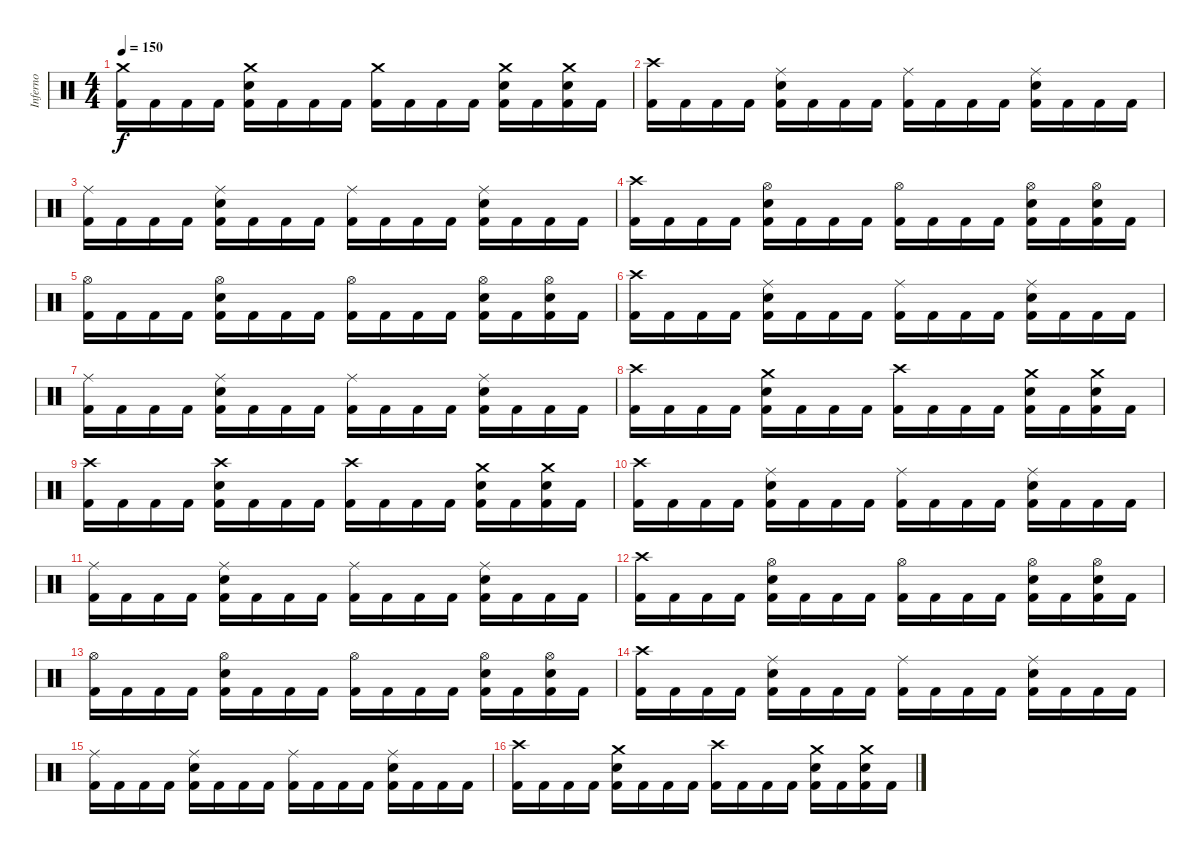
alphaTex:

\track ("Inferno" "Inferno") {instrument percussion}
\staff {score}
\articulation defaults
\ts (4 4)
\tempo 150
\clef neutral
\ks c
("Crash medium (hit)" "Kick (hit) 2").16{dy f} "Kick (hit) 2".16 "Kick (hit) 2".16 "Kick (hit) 2".16 ("Crash medium (hit)" "Electric Snare (hit)" "Kick (hit) 2").16 "Kick (hit) 2".16 "Kick (hit) 2".16 "Kick (hit) 2".16 ("Crash medium (hit)" "Kick (hit) 2").16 "Kick (hit) 2".16 "Kick (hit) 2".16 "Kick (hit) 2".16 ("Crash medium (hit)" "Electric Snare (hit)" "Kick (hit) 2").16 "Kick (hit) 2".16 ("Crash medium (hit)" "Electric Snare (hit)" "Kick (hit) 2").16 "Kick (hit) 2".16 |
("Crash high (hit)" "Kick (hit) 2").16 "Kick (hit) 2".16 "Kick (hit) 2".16 "Kick (hit) 2".16 ("Ride (middle)" "Electric Snare (hit)" "Kick (hit) 2").16 "Kick (hit) 2".16 "Kick (hit) 2".16 "Kick (hit) 2".16 ("Ride (middle)" "Kick (hit) 2").16 "Kick (hit) 2".16 "Kick (hit) 2".16 "Kick (hit) 2".16 ("Ride (middle)" "Electric Snare (hit)" "Kick (hit) 2").16 "Kick (hit) 2".16 "Kick (hit) 2".16 "Kick (hit) 2".16 |
("Ride (middle)" "Kick (hit) 2").16 "Kick (hit) 2".16 "Kick (hit) 2".16 "Kick (hit) 2".16 ("Ride (middle)" "Electric Snare (hit)" "Kick (hit) 2").16 "Kick (hit) 2".16 "Kick (hit) 2".16 "Kick (hit) 2".16 ("Ride (middle)" "Kick (hit) 2").16 "Kick (hit) 2".16 "Kick (hit) 2".16 "Kick (hit) 2".16 ("Ride (middle)" "Electric Snare (hit)" "Kick (hit) 2").16 "Kick (hit) 2".16 "Kick (hit) 2".16 "Kick (hit) 2".16 |
("Crash high (hit)" "Kick (hit) 2").16 "Kick (hit) 2".16 "Kick (hit) 2".16 "Kick (hit) 2".16 ("Hi-Hat (open)" "Electric Snare (hit)" "Kick (hit) 2").16 "Kick (hit) 2".16 "Kick (hit) 2".16 "Kick (hit) 2".16 ("Hi-Hat (open)" "Kick (hit) 2").16 "Kick (hit) 2".16 "Kick (hit) 2".16 "Kick (hit) 2".16 ("Hi-Hat (open)" "Electric Snare (hit)" "Kick (hit) 2").16 "Kick (hit) 2".16 ("Hi-Hat (open)" "Electric Snare (hit)" "Kick (hit) 2").16 "Kick (hit) 2".16 |
("Hi-Hat (open)" "Kick (hit) 2").16 "Kick (hit) 2".16 "Kick (hit) 2".16 "Kick (hit) 2".16 ("Hi-Hat (open)" "Electric Snare (hit)" "Kick (hit) 2").16 "Kick (hit) 2".16 "Kick (hit) 2".16 "Kick (hit) 2".16 ("Hi-Hat (open)" "Kick (hit) 2").16 "Kick (hit) 2".16 "Kick (hit) 2".16 "Kick (hit) 2".16 ("Hi-Hat (open)" "Electric Snare (hit)" "Kick (hit) 2").16 "Kick (hit) 2".16 ("Hi-Hat (open)" "Electric Snare (hit)" "Kick (hit) 2").16 "Kick (hit) 2".16 |
("Crash high (hit)" "Kick (hit) 2").16 "Kick (hit) 2".16 "Kick (hit) 2".16 "Kick (hit) 2".16 ("Ride (middle)" "Electric Snare (hit)" "Kick (hit) 2").16 "Kick (hit) 2".16 "Kick (hit) 2".16 "Kick (hit) 2".16 ("Ride (middle)" "Kick (hit) 2").16 "Kick (hit) 2".16 "Kick (hit) 2".16 "Kick (hit) 2".16 ("Ride (middle)" "Electric Snare (hit)" "Kick (hit) 2").16 "Kick (hit) 2".16 "Kick (hit) 2".16 "Kick (hit) 2".16 |
("Ride (middle)" "Kick (hit) 2").16 "Kick (hit) 2".16 "Kick (hit) 2".16 "Kick (hit) 2".16 ("Ride (middle)" "Electric Snare (hit)" "Kick (hit) 2").16 "Kick (hit) 2".16 "Kick (hit) 2".16 "Kick (hit) 2".16 ("Ride (middle)" "Kick (hit) 2").16 "Kick (hit) 2".16 "Kick (hit) 2".16 "Kick (hit) 2".16 ("Ride (middle)" "Electric Snare (hit)" "Kick (hit) 2").16 "Kick (hit) 2".16 "Kick (hit) 2".16 "Kick (hit) 2".16 |
("Crash high (hit)" "Kick (hit) 2").16 "Kick (hit) 2".16 "Kick (hit) 2".16 "Kick (hit) 2".16 ("Crash medium (hit)" "Electric Snare (hit)" "Kick (hit) 2").16 "Kick (hit) 2".16 "Kick (hit) 2".16 "Kick (hit) 2".16 ("Crash high (hit)" "Kick (hit) 2").16 "Kick (hit) 2".16 "Kick (hit) 2".16 "Kick (hit) 2".16 ("Crash medium (hit)" "Electric Snare (hit)" "Kick (hit) 2").16 "Kick (hit) 2".16 ("Crash medium (hit)" "Electric Snare (hit)" "Kick (hit) 2").16 "Kick (hit) 2".16 |
("Crash high (hit)" "Kick (hit) 2").16 "Kick (hit) 2".16 "Kick (hit) 2".16 "Kick (hit) 2".16 ("Crash high (hit)" "Electric Snare (hit)" "Kick (hit) 2").16 "Kick (hit) 2".16 "Kick (hit) 2".16 "Kick (hit) 2".16 ("Crash high (hit)" "Kick (hit) 2").16 "Kick (hit) 2".16 "Kick (hit) 2".16 "Kick (hit) 2".16 ("Crash medium (hit)" "Electric Snare (hit)" "Kick (hit) 2").16 "Kick (hit) 2".16 ("Crash medium (hit)" "Electric Snare (hit)" "Kick (hit) 2").16 "Kick (hit) 2".16 |
("Crash high (hit)" "Kick (hit) 2").16 "Kick (hit) 2".16 "Kick (hit) 2".16 "Kick (hit) 2".16 ("Ride (middle)" "Electric Snare (hit)" "Kick (hit) 2").16 "Kick (hit) 2".16 "Kick (hit) 2".16 "Kick (hit) 2".16 ("Ride (middle)" "Kick (hit) 2").16 "Kick (hit) 2".16 "Kick (hit) 2".16 "Kick (hit) 2".16 ("Ride (middle)" "Electric Snare (hit)" "Kick (hit) 2").16 "Kick (hit) 2".16 "Kick (hit) 2".16 "Kick (hit) 2".16 |
("Ride (middle)" "Kick (hit) 2").16 "Kick (hit) 2".16 "Kick (hit) 2".16 "Kick (hit) 2".16 ("Ride (middle)" "Electric Snare (hit)" "Kick (hit) 2").16 "Kick (hit) 2".16 "Kick (hit) 2".16 "Kick (hit) 2".16 ("Ride (middle)" "Kick (hit) 2").16 "Kick (hit) 2".16 "Kick (hit) 2".16 "Kick (hit) 2".16 ("Ride (middle)" "Electric Snare (hit)" "Kick (hit) 2").16 "Kick (hit) 2".16 "Kick (hit) 2".16 "Kick (hit) 2".16 |
("Crash high (hit)" "Kick (hit) 2").16 "Kick (hit) 2".16 "Kick (hit) 2".16 "Kick (hit) 2".16 ("Hi-Hat (open)" "Electric Snare (hit)" "Kick (hit) 2").16 "Kick (hit) 2".16 "Kick (hit) 2".16 "Kick (hit) 2".16 ("Hi-Hat (open)" "Kick (hit) 2").16 "Kick (hit) 2".16 "Kick (hit) 2".16 "Kick (hit) 2".16 ("Hi-Hat (open)" "Electric Snare (hit)" "Kick (hit) 2").16 "Kick (hit) 2".16 ("Hi-Hat (open)" "Electric Snare (hit)" "Kick (hit) 2").16 "Kick (hit) 2".16 |
("Hi-Hat (open)" "Kick (hit) 2").16 "Kick (hit) 2".16 "Kick (hit) 2".16 "Kick (hit) 2".16 ("Hi-Hat (open)" "Electric Snare (hit)" "Kick (hit) 2").16 "Kick (hit) 2".16 "Kick (hit) 2".16 "Kick (hit) 2".16 ("Hi-Hat (open)" "Kick (hit) 2").16 "Kick (hit) 2".16 "Kick (hit) 2".16 "Kick (hit) 2".16 ("Hi-Hat (open)" "Electric Snare (hit)" "Kick (hit) 2").16 "Kick (hit) 2".16 ("Hi-Hat (open)" "Electric Snare (hit)" "Kick (hit) 2").16 "Kick (hit) 2".16 |
("Crash high (hit)" "Kick (hit) 2").16 "Kick (hit) 2".16 "Kick (hit) 2".16 "Kick (hit) 2".16 ("Ride (middle)" "Electric Snare (hit)" "Kick (hit) 2").16 "Kick (hit) 2".16 "Kick (hit) 2".16 "Kick (hit) 2".16 ("Ride (middle)" "Kick (hit) 2").16 "Kick (hit) 2".16 "Kick (hit) 2".16 "Kick (hit) 2".16 ("Ride (middle)" "Electric Snare (hit)" "Kick (hit) 2").16 "Kick (hit) 2".16 "Kick (hit) 2".16 "Kick (hit) 2".16 |
("Ride (middle)" "Kick (hit) 2").16 "Kick (hit) 2".16 "Kick (hit) 2".16 "Kick (hit) 2".16 ("Ride (middle)" "Electric Snare (hit)" "Kick (hit) 2").16 "Kick (hit) 2".16 "Kick (hit) 2".16 "Kick (hit) 2".16 ("Ride (middle)" "Kick (hit) 2").16 "Kick (hit) 2".16 "Kick (hit) 2".16 "Kick (hit) 2".16 ("Ride (middle)" "Electric Snare (hit)" "Kick (hit) 2").16 "Kick (hit) 2".16 "Kick (hit) 2".16 "Kick (hit) 2".16 |
("Crash high (hit)" "Kick (hit) 2").16 "Kick (hit) 2".16 "Kick (hit) 2".16 "Kick (hit) 2".16 ("Crash medium (hit)" "Electric Snare (hit)" "Kick (hit) 2").16 "Kick (hit) 2".16 "Kick (hit) 2".16 "Kick (hit) 2".16 ("Crash high (hit)" "Kick (hit) 2").16 "Kick (hit) 2".16 "Kick (hit) 2".16 "Kick (hit) 2".16 ("Crash medium (hit)" "Electric Snare (hit)" "Kick (hit) 2").16 "Kick (hit) 2".16 ("Crash medium (hit)" "Electric Snare (hit)" "Kick (hit) 2").16 "Kick (hit) 2".16
